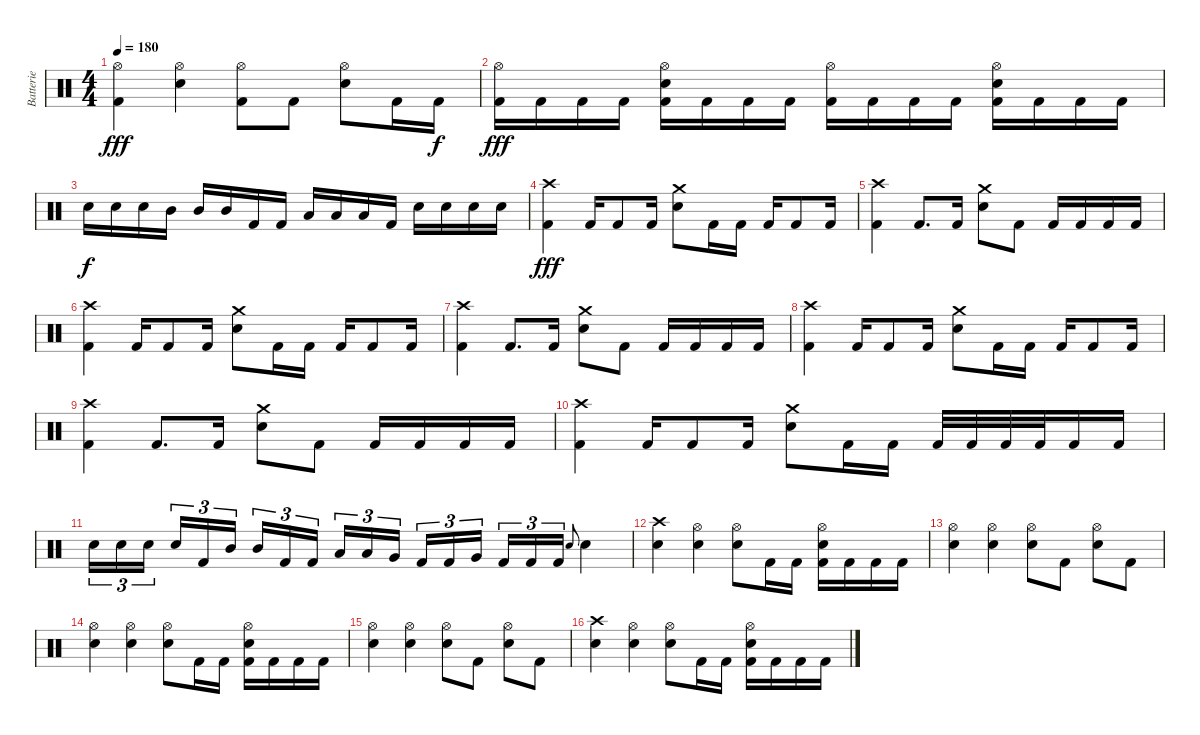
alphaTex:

\track ("Batterie" "Batterie") {instrument percussion}
\staff {score}
\articulation defaults
\ts (4 4)
\tempo 180
\clef neutral
\ks c
("Hi-Hat (open)" "Kick (hit) 2").4{dy fff} ("Hi-Hat (open)" "Electric Snare (hit)").4 ("Hi-Hat (open)" "Kick (hit) 2").8 "Kick (hit) 2".8 ("Hi-Hat (open)" "Electric Snare (hit)").8 "Kick (hit) 2".16 "Kick (hit) 2".16{dy f} |
("Hi-Hat (open)" "Kick (hit) 2").16{dy fff} "Kick (hit) 2".16 "Kick (hit) 2".16 "Kick (hit) 2".16 ("Hi-Hat (open)" "Electric Snare (hit)" "Kick (hit) 2").16 "Kick (hit) 2".16 "Kick (hit) 2".16 "Kick (hit) 2".16 ("Hi-Hat (open)" "Kick (hit) 2").16 "Kick (hit) 2".16 "Kick (hit) 2".16 "Kick (hit) 2".16 ("Hi-Hat (open)" "Electric Snare (hit)" "Kick (hit) 2").16 "Kick (hit) 2".16 "Kick (hit) 2".16 "Kick (hit) 2".16 |
"Electric Snare (hit)".16{dy f} "Electric Snare (hit)".16 "Electric Snare (hit)".16 "Mid Tom (hit)".16 "Mid Tom (hit)".16 "Mid Tom (hit)".16 "Kick (hit) 2".16 "Kick (hit) 2".16 "Low Tom (hit)".16 "Low Tom (hit)".16 "Low Tom (hit)".16 "Kick (hit) 2".16 "Electric Snare (hit)".16 "Electric Snare (hit)".16 "Electric Snare (hit)".16 "Electric Snare (hit)".16 |
("Crash high (hit)" "Kick (hit) 2").4{dy fff} "Kick (hit) 2".16 "Kick (hit) 2".8 "Kick (hit) 2".16 ("Crash medium (hit)" "Electric Snare (hit)").8 "Kick (hit) 2".16 "Kick (hit) 2".16 "Kick (hit) 2".16 "Kick (hit) 2".8 "Kick (hit) 2".16 |
("Crash high (hit)" "Kick (hit) 2").4 "Kick (hit) 2".8{d} "Kick (hit) 2".16 ("Crash medium (hit)" "Electric Snare (hit)").8 "Kick (hit) 2".8 "Kick (hit) 2".16 "Kick (hit) 2".16 "Kick (hit) 2".16 "Kick (hit) 2".16 |
("Crash high (hit)" "Kick (hit) 2").4 "Kick (hit) 2".16 "Kick (hit) 2".8 "Kick (hit) 2".16 ("Crash medium (hit)" "Electric Snare (hit)").8 "Kick (hit) 2".16 "Kick (hit) 2".16 "Kick (hit) 2".16 "Kick (hit) 2".8 "Kick (hit) 2".16 |
("Crash high (hit)" "Kick (hit) 2").4 "Kick (hit) 2".8{d} "Kick (hit) 2".16 ("Crash medium (hit)" "Electric Snare (hit)").8 "Kick (hit) 2".8 "Kick (hit) 2".16 "Kick (hit) 2".16 "Kick (hit) 2".16 "Kick (hit) 2".16 |
("Crash high (hit)" "Kick (hit) 2").4 "Kick (hit) 2".16 "Kick (hit) 2".8 "Kick (hit) 2".16 ("Crash medium (hit)" "Electric Snare (hit)").8 "Kick (hit) 2".16 "Kick (hit) 2".16 "Kick (hit) 2".16 "Kick (hit) 2".8 "Kick (hit) 2".16 |
("Crash high (hit)" "Kick (hit) 2").4 "Kick (hit) 2".8{d} "Kick (hit) 2".16 ("Crash medium (hit)" "Electric Snare (hit)").8 "Kick (hit) 2".8 "Kick (hit) 2".16 "Kick (hit) 2".16 "Kick (hit) 2".16 "Kick (hit) 2".16 |
("Crash high (hit)" "Kick (hit) 2").4 "Kick (hit) 2".16 "Kick (hit) 2".8 "Kick (hit) 2".16 ("Crash medium (hit)" "Electric Snare (hit)").8 "Kick (hit) 2".16 "Kick (hit) 2".16 "Kick (hit) 2".32 "Kick (hit) 2".32 "Kick (hit) 2".32 "Kick (hit) 2".32 "Kick (hit) 2".16 "Kick (hit) 2".16 |
"Electric Snare (hit)".16{tu (3 2)} "Electric Snare (hit)".16{tu (3 2)} "Electric Snare (hit)".16{tu (3 2) beam splitsecondary} "Electric Snare (hit)".16{tu (3 2)} "Kick (hit) 2".16{tu (3 2)} "Mid Tom (hit)".16{tu (3 2)} "Mid Tom (hit)".16{tu (3 2)} "Kick (hit) 2".16{tu (3 2)} "Kick (hit) 2".16{tu (3 2) beam splitsecondary} "Low Tom (hit)".16{tu (3 2)} "Low Tom (hit)".16{tu (3 2)} "Very Low Tom (hit)".16{tu (3 2)} "Kick (hit) 2".16{tu (3 2)} "Kick (hit) 2".16{tu (3 2)} "Very Low Tom (hit)".16{tu (3 2) beam splitsecondary} "Kick (hit) 2".16{tu (3 2)} "Kick (hit) 2".16{tu (3 2)} "Kick (hit) 2".16{tu (3 2)} "Electric Snare (hit)".8{gr onbeat} "Electric Snare (hit)".4 |
("Crash high (hit)" "Electric Snare (hit)").4 ("Hi-Hat (open)" "Electric Snare (hit)").4 ("Hi-Hat (open)" "Electric Snare (hit)").8 "Kick (hit) 2".16 "Kick (hit) 2".16 ("Hi-Hat (open)" "Electric Snare (hit)" "Kick (hit) 2").16 "Kick (hit) 2".16 "Kick (hit) 2".16 "Kick (hit) 2".16 |
("Hi-Hat (open)" "Electric Snare (hit)").4 ("Hi-Hat (open)" "Electric Snare (hit)").4 ("Hi-Hat (open)" "Electric Snare (hit)").8 "Kick (hit) 2".8 ("Hi-Hat (open)" "Electric Snare (hit)").8 "Kick (hit) 2".8 |
("Hi-Hat (open)" "Electric Snare (hit)").4 ("Hi-Hat (open)" "Electric Snare (hit)").4 ("Hi-Hat (open)" "Electric Snare (hit)").8 "Kick (hit) 2".16 "Kick (hit) 2".16 ("Hi-Hat (open)" "Electric Snare (hit)" "Kick (hit) 2").16 "Kick (hit) 2".16 "Kick (hit) 2".16 "Kick (hit) 2".16 |
("Hi-Hat (open)" "Electric Snare (hit)").4 ("Hi-Hat (open)" "Electric Snare (hit)").4 ("Hi-Hat (open)" "Electric Snare (hit)").8 "Kick (hit) 2".8 ("Hi-Hat (open)" "Electric Snare (hit)").8 "Kick (hit) 2".8 |
("Crash high (hit)" "Electric Snare (hit)").4 ("Hi-Hat (open)" "Electric Snare (hit)").4 ("Hi-Hat (open)" "Electric Snare (hit)").8 "Kick (hit) 2".16 "Kick (hit) 2".16 ("Hi-Hat (open)" "Electric Snare (hit)" "Kick (hit) 2").16 "Kick (hit) 2".16 "Kick (hit) 2".16 "Kick (hit) 2".16
